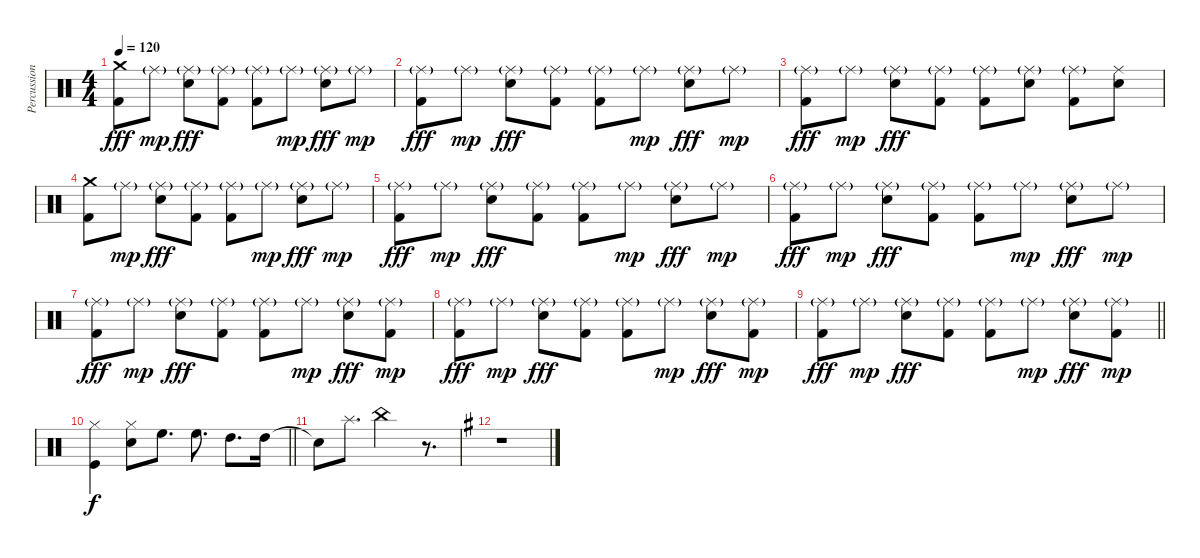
\track ("Percussion" "Percussion") {instrument percussion}
\staff {score}
\articulation defaults
\ts (4 4)
\tempo 120
\clef neutral
\ks c
("Crash medium (hit)" "Kick (hit) 2").8{dy fff} "Ride (middle)"{g}.8{dy mp} ("Ride (middle)"{g} "Electric Snare (hit)").8{dy fff} ("Ride (middle)"{g} "Kick (hit) 2").8 ("Ride (middle)"{g} "Kick (hit) 2").8 "Ride (middle)"{g}.8{dy mp} ("Ride (middle)"{g} "Electric Snare (hit)").8{dy fff} "Ride (middle)"{g}.8{dy mp} |
("Ride (middle)"{g} "Kick (hit) 2").8{dy fff} "Ride (middle)"{g}.8{dy mp} ("Ride (middle)"{g} "Electric Snare (hit)").8{dy fff} ("Ride (middle)"{g} "Kick (hit) 2").8 ("Ride (middle)"{g} "Kick (hit) 2").8 "Ride (middle)"{g}.8{dy mp} ("Ride (middle)"{g} "Electric Snare (hit)").8{dy fff} "Ride (middle)"{g}.8{dy mp} |
("Ride (middle)"{g} "Kick (hit) 2").8{dy fff} "Ride (middle)"{g}.8{dy mp} ("Ride (middle)"{g} "Electric Snare (hit)").8{dy fff} ("Ride (middle)"{g} "Kick (hit) 2").8 ("Ride (middle)"{g} "Kick (hit) 2").8 ("Ride (middle)"{g} "Electric Snare (hit)").8 ("Ride (middle)"{g} "Kick (hit) 2").8 ("Ride (middle)" "Electric Snare (hit)").8 |
("Crash medium (hit)" "Kick (hit) 2").8 "Ride (middle)"{g}.8{dy mp} ("Ride (middle)"{g} "Electric Snare (hit)").8{dy fff} ("Ride (middle)"{g} "Kick (hit) 2").8 ("Ride (middle)"{g} "Kick (hit) 2").8 "Ride (middle)"{g}.8{dy mp} ("Ride (middle)"{g} "Electric Snare (hit)").8{dy fff} "Ride (middle)"{g}.8{dy mp} |
("Ride (middle)"{g} "Kick (hit) 2").8{dy fff} "Ride (middle)"{g}.8{dy mp} ("Ride (middle)"{g} "Electric Snare (hit)").8{dy fff} ("Ride (middle)"{g} "Kick (hit) 2").8 ("Ride (middle)"{g} "Kick (hit) 2").8 "Ride (middle)"{g}.8{dy mp} ("Ride (middle)"{g} "Electric Snare (hit)").8{dy fff} "Ride (middle)"{g}.8{dy mp} |
("Ride (middle)"{g} "Kick (hit) 2").8{dy fff} "Ride (middle)"{g}.8{dy mp} ("Ride (middle)"{g} "Electric Snare (hit)").8{dy fff} ("Ride (middle)"{g} "Kick (hit) 2").8 ("Ride (middle)"{g} "Kick (hit) 2").8 "Ride (middle)"{g}.8{dy mp} ("Ride (middle)"{g} "Electric Snare (hit)").8{dy fff} "Ride (middle)"{g}.8{dy mp} |
("Ride (middle)"{g} "Kick (hit) 2").8{dy fff} "Ride (middle)"{g}.8{dy mp} ("Ride (middle)"{g} "Electric Snare (hit)").8{dy fff} ("Ride (middle)"{g} "Kick (hit) 2").8 ("Ride (middle)"{g} "Kick (hit) 2").8 "Ride (middle)"{g}.8{dy mp} ("Ride (middle)"{g} "Electric Snare (hit)").8{dy fff} ("Ride (middle)"{g} "Kick (hit) 2").8{dy mp} |
("Ride (middle)"{g} "Kick (hit) 2").8{dy fff} "Ride (middle)"{g}.8{dy mp} ("Ride (middle)"{g} "Electric Snare (hit)").8{dy fff} ("Ride (middle)"{g} "Kick (hit) 2").8 ("Ride (middle)"{g} "Kick (hit) 2").8 "Ride (middle)"{g}.8{dy mp} ("Ride (middle)"{g} "Electric Snare (hit)").8{dy fff} ("Ride (middle)"{g} "Kick (hit) 2").8{dy mp} |
\barLineRight lightlight
("Ride (middle)"{g} "Kick (hit) 2").8{dy fff} "Ride (middle)"{g}.8{dy mp} ("Ride (middle)"{g} "Electric Snare (hit)").8{dy fff} ("Ride (middle)"{g} "Kick (hit) 2").8 ("Ride (middle)"{g} "Kick (hit) 2").8 "Ride (middle)"{g}.8{dy mp} ("Ride (middle)"{g} "Electric Snare (hit)").8{dy fff} ("Ride (middle)"{g} "Kick (hit) 2").8{dy mp} |
\barLineRight lightlight
("Hi-Hat (closed)" "Kick (hit)").4{dy f} ("Hi-Hat (closed)" "Snare (hit) 2").8 "High Floor Tom (hit)".8{d} "High Floor Tom (hit)".8{d} "High Tom (hit)".8{d} "High Tom (hit)".16 |
"Snare (hit)"{t}.8 "Splash (hit)".8{d} "China (hit)".2 r.8{d} |
\ks g
r.1
